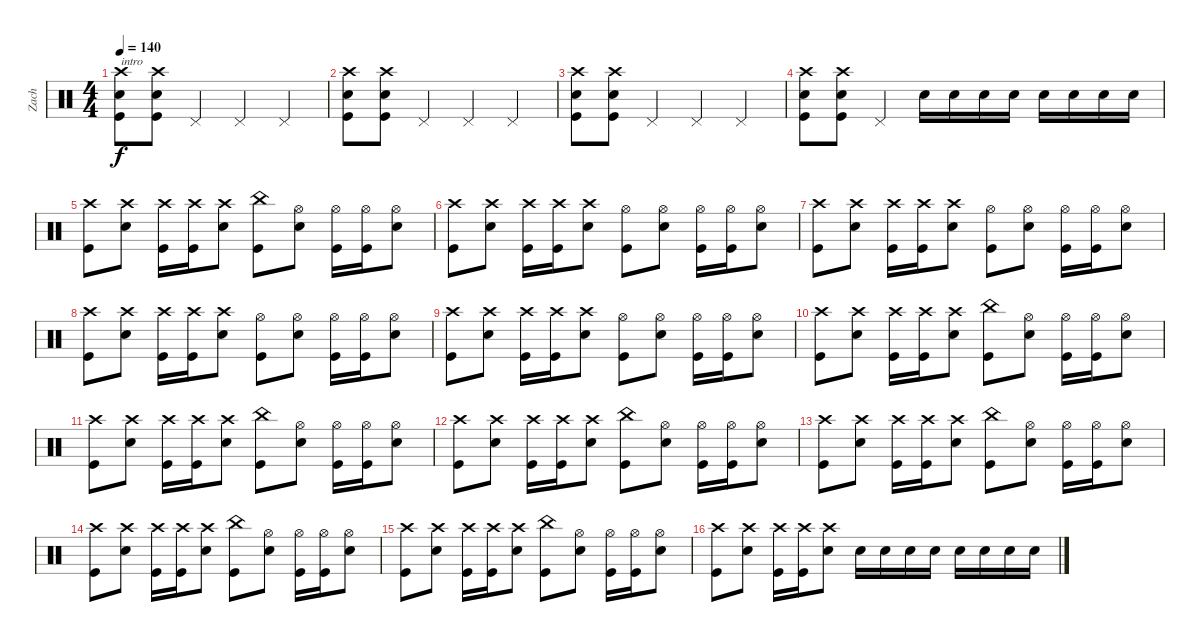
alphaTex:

\track ("Zach" "Zach") {instrument percussion}
\staff {score}
\articulation defaults
\ts (4 4)
\tempo 140
\clef neutral
\ks c
("Kick (hit)" "Snare (hit) 2" "Crash high (hit)").8{txt "intro" dy f} ("Kick (hit)" "Snare (hit) 2" "Crash high (hit)").8 "Pedal Hi-Hat (hit)".4 "Pedal Hi-Hat (hit)".4 "Pedal Hi-Hat (hit)".4 |
("Kick (hit)" "Snare (hit) 2" "Crash high (hit)").8 ("Kick (hit)" "Snare (hit) 2" "Crash high (hit)").8 "Pedal Hi-Hat (hit)".4 "Pedal Hi-Hat (hit)".4 "Pedal Hi-Hat (hit)".4 |
("Kick (hit)" "Snare (hit) 2" "Crash high (hit)").8 ("Kick (hit)" "Snare (hit) 2" "Crash high (hit)").8 "Pedal Hi-Hat (hit)".4 "Pedal Hi-Hat (hit)".4 "Pedal Hi-Hat (hit)".4 |
("Kick (hit)" "Snare (hit) 2" "Crash high (hit)").8 ("Kick (hit)" "Snare (hit) 2" "Crash high (hit)").8 "Pedal Hi-Hat (hit)".4 "Snare (hit) 2".16 "Snare (hit) 2".16 "Snare (hit) 2".16 "Snare (hit) 2".16 "Snare (hit) 2".16 "Snare (hit) 2".16 "Snare (hit) 2".16 "Snare (hit) 2".16 |
("Kick (hit)" "Crash high (hit)").8 ("Snare (hit) 2" "Crash high (hit)").8 ("Kick (hit)" "Crash high (hit)").16 ("Kick (hit)" "Crash high (hit)").16 ("Snare (hit) 2" "Crash high (hit)").8 ("Kick (hit)" "China (hit)").8 ("Snare (hit) 2" "Hi-Hat (open)").8 ("Kick (hit)" "Hi-Hat (open)").16 ("Kick (hit)" "Hi-Hat (open)").16 ("Snare (hit) 2" "Hi-Hat (open)").8 |
("Kick (hit)" "Crash high (hit)").8 ("Snare (hit) 2" "Crash high (hit)").8 ("Kick (hit)" "Crash high (hit)").16 ("Kick (hit)" "Crash high (hit)").16 ("Snare (hit) 2" "Crash high (hit)").8 ("Kick (hit)" "Hi-Hat (open)").8 ("Snare (hit) 2" "Hi-Hat (open)").8 ("Kick (hit)" "Hi-Hat (open)").16 ("Kick (hit)" "Hi-Hat (open)").16 ("Snare (hit) 2" "Hi-Hat (open)").8 |
("Kick (hit)" "Crash high (hit)").8 ("Snare (hit) 2" "Crash high (hit)").8 ("Kick (hit)" "Crash high (hit)").16 ("Kick (hit)" "Crash high (hit)").16 ("Snare (hit) 2" "Crash high (hit)").8 ("Kick (hit)" "Hi-Hat (open)").8 ("Snare (hit) 2" "Hi-Hat (open)").8 ("Kick (hit)" "Hi-Hat (open)").16 ("Kick (hit)" "Hi-Hat (open)").16 ("Snare (hit) 2" "Hi-Hat (open)").8 |
("Kick (hit)" "Crash high (hit)").8 ("Snare (hit) 2" "Crash high (hit)").8 ("Kick (hit)" "Crash high (hit)").16 ("Kick (hit)" "Crash high (hit)").16 ("Snare (hit) 2" "Crash high (hit)").8 ("Kick (hit)" "Hi-Hat (open)").8 ("Snare (hit) 2" "Hi-Hat (open)").8 ("Kick (hit)" "Hi-Hat (open)").16 ("Kick (hit)" "Hi-Hat (open)").16 ("Snare (hit) 2" "Hi-Hat (open)").8 |
("Kick (hit)" "Crash high (hit)").8 ("Snare (hit) 2" "Crash high (hit)").8 ("Kick (hit)" "Crash high (hit)").16 ("Kick (hit)" "Crash high (hit)").16 ("Snare (hit) 2" "Crash high (hit)").8 ("Kick (hit)" "Hi-Hat (open)").8 ("Snare (hit) 2" "Hi-Hat (open)").8 ("Kick (hit)" "Hi-Hat (open)").16 ("Kick (hit)" "Hi-Hat (open)").16 ("Snare (hit) 2" "Hi-Hat (open)").8 |
("Kick (hit)" "Crash high (hit)").8 ("Snare (hit) 2" "Crash high (hit)").8 ("Kick (hit)" "Crash high (hit)").16 ("Kick (hit)" "Crash high (hit)").16 ("Snare (hit) 2" "Crash high (hit)").8 ("Kick (hit)" "China (hit)").8 ("Snare (hit) 2" "Hi-Hat (open)").8 ("Kick (hit)" "Hi-Hat (open)").16 ("Kick (hit)" "Hi-Hat (open)").16 ("Snare (hit) 2" "Hi-Hat (open)").8 |
("Kick (hit)" "Crash high (hit)").8 ("Snare (hit) 2" "Crash high (hit)").8 ("Kick (hit)" "Crash high (hit)").16 ("Kick (hit)" "Crash high (hit)").16 ("Snare (hit) 2" "Crash high (hit)").8 ("Kick (hit)" "China (hit)").8 ("Snare (hit) 2" "Hi-Hat (open)").8 ("Kick (hit)" "Hi-Hat (open)").16 ("Kick (hit)" "Hi-Hat (open)").16 ("Snare (hit) 2" "Hi-Hat (open)").8 |
("Kick (hit)" "Crash high (hit)").8 ("Snare (hit) 2" "Crash high (hit)").8 ("Kick (hit)" "Crash high (hit)").16 ("Kick (hit)" "Crash high (hit)").16 ("Snare (hit) 2" "Crash high (hit)").8 ("Kick (hit)" "China (hit)").8 ("Snare (hit) 2" "Hi-Hat (open)").8 ("Kick (hit)" "Hi-Hat (open)").16 ("Kick (hit)" "Hi-Hat (open)").16 ("Snare (hit) 2" "Hi-Hat (open)").8 |
("Kick (hit)" "Crash high (hit)").8 ("Snare (hit) 2" "Crash high (hit)").8 ("Kick (hit)" "Crash high (hit)").16 ("Kick (hit)" "Crash high (hit)").16 ("Snare (hit) 2" "Crash high (hit)").8 ("Kick (hit)" "China (hit)").8 ("Snare (hit) 2" "Hi-Hat (open)").8 ("Kick (hit)" "Hi-Hat (open)").16 ("Kick (hit)" "Hi-Hat (open)").16 ("Snare (hit) 2" "Hi-Hat (open)").8 |
("Kick (hit)" "Crash high (hit)").8 ("Snare (hit) 2" "Crash high (hit)").8 ("Kick (hit)" "Crash high (hit)").16 ("Kick (hit)" "Crash high (hit)").16 ("Snare (hit) 2" "Crash high (hit)").8 ("Kick (hit)" "China (hit)").8 ("Snare (hit) 2" "Hi-Hat (open)").8 ("Kick (hit)" "Hi-Hat (open)").16 ("Kick (hit)" "Hi-Hat (open)").16 ("Snare (hit) 2" "Hi-Hat (open)").8 |
("Kick (hit)" "Crash high (hit)").8 ("Snare (hit) 2" "Crash high (hit)").8 ("Kick (hit)" "Crash high (hit)").16 ("Kick (hit)" "Crash high (hit)").16 ("Snare (hit) 2" "Crash high (hit)").8 ("Kick (hit)" "China (hit)").8 ("Snare (hit) 2" "Hi-Hat (open)").8 ("Kick (hit)" "Hi-Hat (open)").16 ("Kick (hit)" "Hi-Hat (open)").16 ("Snare (hit) 2" "Hi-Hat (open)").8 |
("Kick (hit)" "Crash high (hit)").8 ("Snare (hit) 2" "Crash high (hit)").8 ("Kick (hit)" "Crash high (hit)").16 ("Kick (hit)" "Crash high (hit)").16 ("Snare (hit) 2" "Crash high (hit)").8 "Snare (hit) 2".16 "Snare (hit) 2".16 "Snare (hit) 2".16 "Snare (hit) 2".16 "Snare (hit) 2".16 "Snare (hit) 2".16 "Snare (hit) 2".16 "Snare (hit) 2".16
